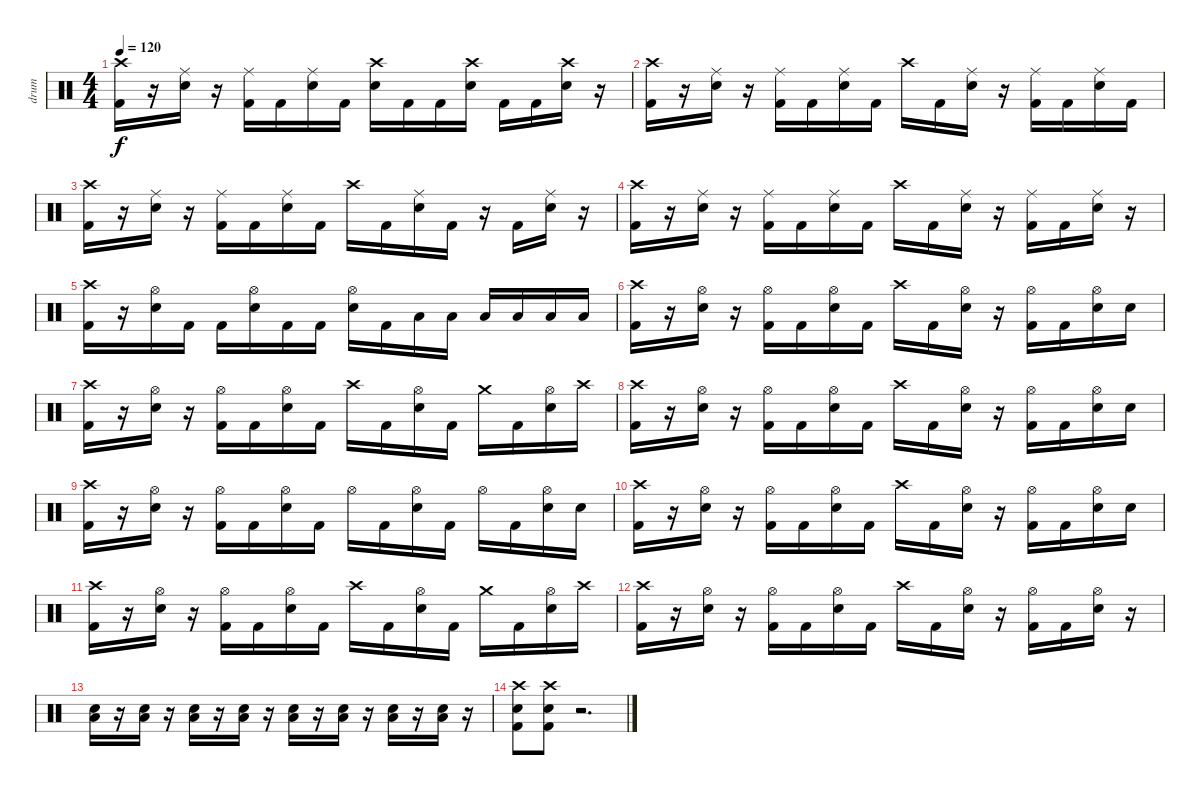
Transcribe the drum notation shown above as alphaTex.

\track ("drum" "drum") {instrument percussion}
\staff {score}
\articulation defaults
\ts (4 4)
\tempo 120
\clef neutral
\ks c
("Crash high (hit)" "Kick (hit) 2").16{dy f} r.16 ("Ride (middle)" "Snare (hit) 2").16 r.16 ("Ride (middle)" "Kick (hit) 2").16 "Kick (hit) 2".16 ("Ride (middle)" "Snare (hit) 2").16 "Kick (hit) 2".16 ("Crash high (hit)" "Snare (hit) 2").16 "Kick (hit) 2".16 "Kick (hit) 2".16 ("Crash high (hit)" "Snare (hit) 2").16 "Kick (hit) 2".16 "Kick (hit) 2".16 ("Crash high (hit)" "Snare (hit) 2").16 r.16 |
("Crash high (hit)" "Kick (hit) 2").16 r.16 ("Ride (middle)" "Snare (hit) 2").16 r.16 ("Ride (middle)" "Kick (hit) 2").16 "Kick (hit) 2".16 ("Ride (middle)" "Snare (hit) 2").16 "Kick (hit) 2".16 "Crash high (hit)".16 "Kick (hit) 2".16 ("Ride (middle)" "Snare (hit) 2").16 r.16 ("Ride (middle)" "Kick (hit) 2").16 "Kick (hit) 2".16 ("Ride (middle)" "Snare (hit) 2").16 "Kick (hit) 2".16 |
("Crash high (hit)" "Kick (hit) 2").16 r.16 ("Ride (middle)" "Snare (hit) 2").16 r.16 ("Ride (middle)" "Kick (hit) 2").16 "Kick (hit) 2".16 ("Ride (middle)" "Snare (hit) 2").16 "Kick (hit) 2".16 "Crash high (hit)".16 "Kick (hit) 2".16 ("Ride (middle)" "Snare (hit) 2").16 "Kick (hit) 2".16 r.16 "Kick (hit) 2".16 ("Ride (middle)" "Snare (hit) 2").16 r.16 |
("Crash high (hit)" "Kick (hit) 2").16 r.16 ("Ride (middle)" "Snare (hit) 2").16 r.16 ("Ride (middle)" "Kick (hit) 2").16 "Kick (hit) 2".16 ("Ride (middle)" "Snare (hit) 2").16 "Kick (hit) 2".16 "Crash high (hit)".16 "Kick (hit) 2".16 ("Ride (middle)" "Snare (hit) 2").16 r.16 ("Ride (middle)" "Kick (hit) 2").16 "Kick (hit) 2".16 ("Ride (middle)" "Snare (hit) 2").16 r.16 |
("Crash high (hit)" "Kick (hit) 2").16 r.16 ("Hi-Hat (open)" "Snare (hit) 2").16 "Kick (hit) 2".16 "Kick (hit) 2".16 ("Hi-Hat (open)" "Snare (hit) 2").16 "Kick (hit) 2".16 "Kick (hit) 2".16 ("Hi-Hat (open)" "Snare (hit) 2").16 "Kick (hit) 2".16 "Low Floor Tom (hit)".16 "Low Floor Tom (hit)".16 "Low Floor Tom (hit)".16 "Low Floor Tom (hit)".16 "Low Floor Tom (hit)".16 "Low Floor Tom (hit)".16 |
("Crash high (hit)" "Kick (hit) 2").16 r.16 ("Hi-Hat (open)" "Snare (hit) 2").16 r.16 ("Hi-Hat (open)" "Kick (hit) 2").16 "Kick (hit) 2".16 ("Hi-Hat (open)" "Snare (hit) 2").16 "Kick (hit) 2".16 "Crash high (hit)".16 "Kick (hit) 2".16 ("Hi-Hat (open)" "Snare (hit) 2").16 r.16 ("Hi-Hat (open)" "Kick (hit) 2").16 "Kick (hit) 2".16 ("Hi-Hat (open)" "Snare (hit) 2").16 "Snare (hit) 2".16 |
("Crash high (hit)" "Kick (hit) 2").16 r.16 ("Hi-Hat (open)" "Snare (hit) 2").16 r.16 ("Hi-Hat (open)" "Kick (hit) 2").16 "Kick (hit) 2".16 ("Hi-Hat (open)" "Snare (hit) 2").16 "Kick (hit) 2".16 "Crash high (hit)".16 "Kick (hit) 2".16 ("Hi-Hat (open)" "Snare (hit) 2").16 "Kick (hit) 2".16 "Crash medium (hit)".16 "Kick (hit) 2".16 ("Hi-Hat (open)" "Snare (hit) 2").16 "Crash high (hit)".16 |
("Crash high (hit)" "Kick (hit) 2").16 r.16 ("Hi-Hat (open)" "Snare (hit) 2").16 r.16 ("Hi-Hat (open)" "Kick (hit) 2").16 "Kick (hit) 2".16 ("Hi-Hat (open)" "Snare (hit) 2").16 "Kick (hit) 2".16 "Crash high (hit)".16 "Kick (hit) 2".16 ("Hi-Hat (open)" "Snare (hit) 2").16 r.16 ("Hi-Hat (open)" "Kick (hit) 2").16 "Kick (hit) 2".16 ("Hi-Hat (open)" "Snare (hit) 2").16 "Snare (hit) 2".16 |
("Crash high (hit)" "Kick (hit) 2").16 r.16 ("Hi-Hat (open)" "Snare (hit) 2").16 r.16 ("Hi-Hat (open)" "Kick (hit) 2").16 "Kick (hit) 2".16 ("Hi-Hat (open)" "Snare (hit) 2").16 "Kick (hit) 2".16 "Hi-Hat (open)".16 "Kick (hit) 2".16 ("Hi-Hat (open)" "Snare (hit) 2").16 "Kick (hit) 2".16 "Hi-Hat (open)".16 "Kick (hit) 2".16 ("Hi-Hat (open)" "Snare (hit) 2").16 "Snare (hit) 2".16 |
("Crash high (hit)" "Kick (hit) 2").16 r.16 ("Hi-Hat (open)" "Snare (hit) 2").16 r.16 ("Hi-Hat (open)" "Kick (hit) 2").16 "Kick (hit) 2".16 ("Hi-Hat (open)" "Snare (hit) 2").16 "Kick (hit) 2".16 "Crash high (hit)".16 "Kick (hit) 2".16 ("Hi-Hat (open)" "Snare (hit) 2").16 r.16 ("Hi-Hat (open)" "Kick (hit) 2").16 "Kick (hit) 2".16 ("Hi-Hat (open)" "Snare (hit) 2").16 "Snare (hit) 2".16 |
("Crash high (hit)" "Kick (hit) 2").16 r.16 ("Hi-Hat (open)" "Snare (hit) 2").16 r.16 ("Hi-Hat (open)" "Kick (hit) 2").16 "Kick (hit) 2".16 ("Hi-Hat (open)" "Snare (hit) 2").16 "Kick (hit) 2".16 "Crash high (hit)".16 "Kick (hit) 2".16 ("Hi-Hat (open)" "Snare (hit) 2").16 "Kick (hit) 2".16 "Crash medium (hit)".16 "Kick (hit) 2".16 ("Hi-Hat (open)" "Snare (hit) 2").16 "Crash high (hit)".16 |
("Crash high (hit)" "Kick (hit) 2").16 r.16 ("Hi-Hat (open)" "Snare (hit) 2").16 r.16 ("Hi-Hat (open)" "Kick (hit) 2").16 "Kick (hit) 2".16 ("Hi-Hat (open)" "Snare (hit) 2").16 "Kick (hit) 2".16 "Crash high (hit)".16 "Kick (hit) 2".16 ("Hi-Hat (open)" "Snare (hit) 2").16 r.16 ("Hi-Hat (open)" "Kick (hit) 2").16 "Kick (hit) 2".16 ("Hi-Hat (open)" "Snare (hit) 2").16 r.16 |
("Low Floor Tom (hit)" "Snare (hit) 2").16 r.16 ("Low Floor Tom (hit)" "Snare (hit) 2").16 r.16 ("Low Floor Tom (hit)" "Snare (hit) 2").16 r.16 ("Low Floor Tom (hit)" "Snare (hit) 2").16 r.16 ("Low Floor Tom (hit)" "Snare (hit) 2").16 r.16 ("Low Floor Tom (hit)" "Snare (hit) 2").16 r.16 ("Low Floor Tom (hit)" "Snare (hit) 2").16 r.16 ("Low Floor Tom (hit)" "Snare (hit) 2").16 r.16 |
("Crash high (hit)" "Snare (hit) 2" "Kick (hit) 2").8 ("Crash high (hit)" "Snare (hit) 2" "Kick (hit) 2").8 r.2{d}
